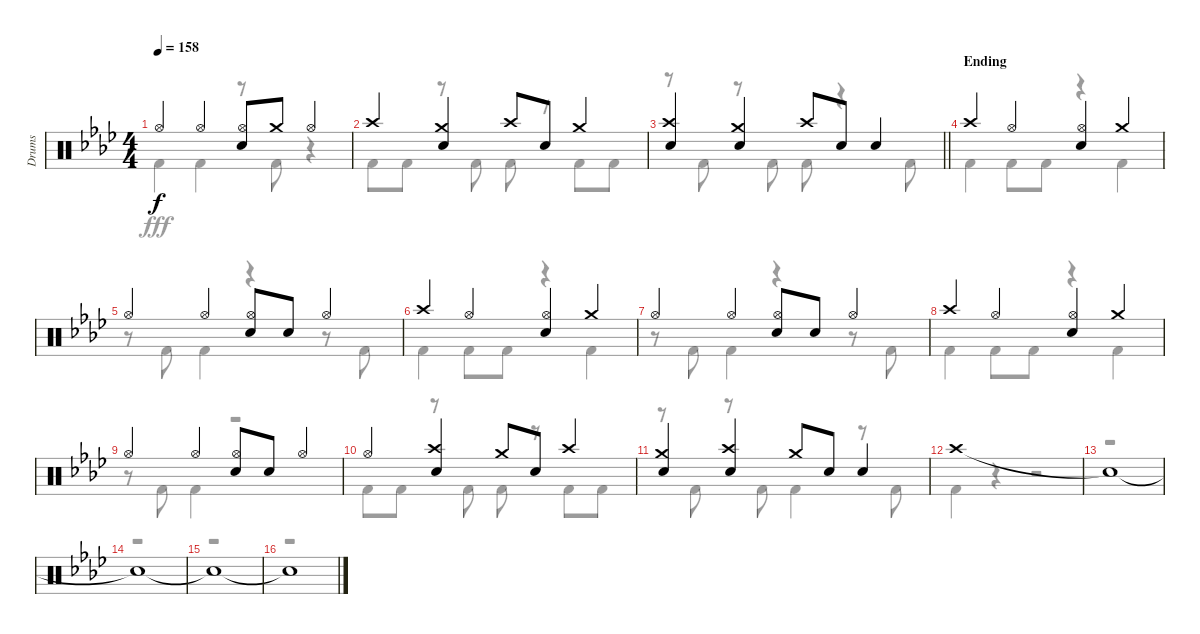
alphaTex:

\track ("Drums" "Drums") {instrument percussion}
\staff {score}
\articulation defaults
\voice
\ts (4 4)
\tempo 158
\clef neutral
\ks ab "Hi-Hat (open)".4{dy f} "Hi-Hat (open)".4
("Hi-Hat (open)" "Snare (hit) 2").8 "Crash medium (hit)".8 "Hi-Hat (open)".4 |
"Crash high (hit)".4 ("Crash medium (hit)" "Snare (hit) 2").4 "Crash high (hit)".8 "Snare (hit) 2".8 "Crash medium (hit)".4 |
\barLineRight lightlight
("Crash high (hit)" "Snare (hit) 2").4 ("Crash medium (hit)" "Snare (hit) 2").4 "Crash high (hit)".8 "Snare (hit) 2".8 "Snare (hit) 2".4 |
\section ("" "Ending")
"Crash high (hit)".4 "Hi-Hat (open)".4 ("Hi-Hat (open)" "Snare (hit) 2").4 "Crash medium (hit)".4 |
"Hi-Hat (open)".4 "Hi-Hat (open)".4 ("Hi-Hat (open)" "Snare (hit) 2").8 "Snare (hit) 2".8 "Hi-Hat (open)".4 |
"Crash high (hit)".4 "Hi-Hat (open)".4 ("Hi-Hat (open)" "Snare (hit) 2").4 "Crash medium (hit)".4 |
"Hi-Hat (open)".4 "Hi-Hat (open)".4 ("Hi-Hat (open)" "Snare (hit) 2").8 "Snare (hit) 2".8 "Hi-Hat (open)".4 |
"Crash high (hit)".4 "Hi-Hat (open)".4 ("Hi-Hat (open)" "Snare (hit) 2").4 "Crash medium (hit)".4 |
"Hi-Hat (open)".4 "Hi-Hat (open)".4 ("Hi-Hat (open)" "Snare (hit) 2").8 "Snare (hit) 2".8 "Hi-Hat (open)".4 |
"Hi-Hat (open)".4 ("Crash high (hit)" "Snare (hit) 2").4 "Crash medium (hit)".8 "Snare (hit) 2".8 "Crash high (hit)".4 |
("Crash medium (hit)" "Snare (hit) 2").4 ("Crash high (hit)" "Snare (hit) 2").4 "Crash medium (hit)".8 "Snare (hit) 2".8 "Snare (hit) 2".4 |
"Crash high (hit)".1 |
"Snare (hit)"{t}.1 |
"Snare (hit)"{t}.1 |
"Snare (hit)"{t}.1 |
"Snare (hit)"{t}.1
\voice
\clef neutral
\ottava regular
\simile none
\ks ab "Kick (hit) 2".4{dy fff} "Kick (hit) 2".4
r.8 "Kick (hit) 2".8 r.4 |
"Kick (hit) 2".8 "Kick (hit) 2".8 r.8 "Kick (hit) 2".8 "Kick (hit) 2".8 r.8 "Kick (hit) 2".8 "Kick (hit) 2".8 |
\barLineRight lightlight
r.8 "Kick (hit) 2".8 r.8 "Kick (hit) 2".8 "Kick (hit) 2".8 r.4 "Kick (hit) 2".8 |
"Kick (hit) 2".4 "Kick (hit) 2".8 "Kick (hit) 2".8 r.4 "Kick (hit) 2".4 |
r.8 "Kick (hit) 2".8 "Kick (hit) 2".4 r.4 r.8 "Kick (hit) 2".8 |
"Kick (hit) 2".4 "Kick (hit) 2".8 "Kick (hit) 2".8 r.4 "Kick (hit) 2".4 |
r.8 "Kick (hit) 2".8 "Kick (hit) 2".4 r.4 r.8 "Kick (hit) 2".8 |
"Kick (hit) 2".4 "Kick (hit) 2".8 "Kick (hit) 2".8 r.4 "Kick (hit) 2".4 |
r.8 "Kick (hit) 2".8 "Kick (hit) 2".4 r.2 |
"Kick (hit) 2".8 "Kick (hit) 2".8 r.8 "Kick (hit) 2".8 "Kick (hit) 2".8 r.8 "Kick (hit) 2".8 "Kick (hit) 2".8 |
r.8 "Kick (hit) 2".8 r.8 "Kick (hit) 2".8 "Kick (hit) 2".4 r.8 "Kick (hit) 2".8 |
"Kick (hit) 2".4 r.4 r.2 |
r.1 |
r.1 |
r.1 |
r.1
